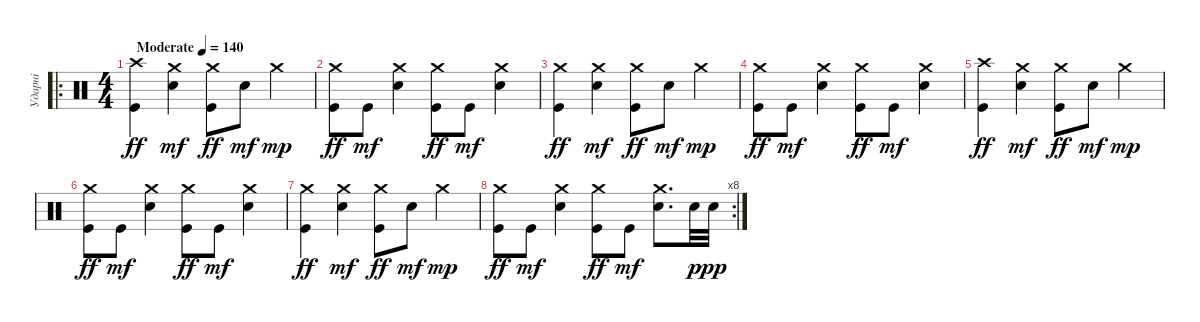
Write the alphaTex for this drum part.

\track ("Ударні" "Ударні") {instrument percussion}
\staff {score}
\articulation defaults
\ro
\ts (4 4)
\tempo (140 "Moderate")
\clef neutral
\ks c
("Crash high (hit)" "Kick (hit)").4{dy ff} ("Crash medium (hit)" "Snare (hit) 2").4{dy mf} ("Crash medium (hit)" "Kick (hit)").8{dy ff} "Snare (hit) 2".8{dy mf} "Crash medium (hit)".4{dy mp} |
("Crash medium (hit)" "Kick (hit)").8{dy ff} "Kick (hit)".8{dy mf} ("Crash medium (hit)" "Snare (hit) 2").4 ("Crash medium (hit)" "Kick (hit)").8{dy ff} "Kick (hit)".8{dy mf} ("Crash medium (hit)" "Snare (hit) 2").4 |
("Crash medium (hit)" "Kick (hit)").4{dy ff} ("Crash medium (hit)" "Snare (hit) 2").4{dy mf} ("Crash medium (hit)" "Kick (hit)").8{dy ff} "Snare (hit) 2".8{dy mf} "Crash medium (hit)".4{dy mp} |
("Crash medium (hit)" "Kick (hit)").8{dy ff} "Kick (hit)".8{dy mf} ("Crash medium (hit)" "Snare (hit) 2").4 ("Crash medium (hit)" "Kick (hit)").8{dy ff} "Kick (hit)".8{dy mf} ("Crash medium (hit)" "Snare (hit) 2").4 |
("Crash high (hit)" "Kick (hit)").4{dy ff} ("Crash medium (hit)" "Snare (hit) 2").4{dy mf} ("Crash medium (hit)" "Kick (hit)").8{dy ff} "Snare (hit) 2".8{dy mf} "Crash medium (hit)".4{dy mp} |
("Crash medium (hit)" "Kick (hit)").8{dy ff} "Kick (hit)".8{dy mf} ("Crash medium (hit)" "Snare (hit) 2").4 ("Crash medium (hit)" "Kick (hit)").8{dy ff} "Kick (hit)".8{dy mf} ("Crash medium (hit)" "Snare (hit) 2").4 |
("Crash medium (hit)" "Kick (hit)").4{dy ff} ("Crash medium (hit)" "Snare (hit) 2").4{dy mf} ("Crash medium (hit)" "Kick (hit)").8{dy ff} "Snare (hit) 2".8{dy mf} "Crash medium (hit)".4{dy mp} |
\rc 8
("Crash medium (hit)" "Kick (hit)").8{dy ff} "Kick (hit)".8{dy mf} ("Crash medium (hit)" "Snare (hit) 2").4 ("Crash medium (hit)" "Kick (hit)").8{dy ff} "Kick (hit)".8{dy mf} ("Crash medium (hit)" "Snare (hit) 2").8{d} "Snare (hit) 2".32{dy p} "Snare (hit) 2".32{dy pp}
